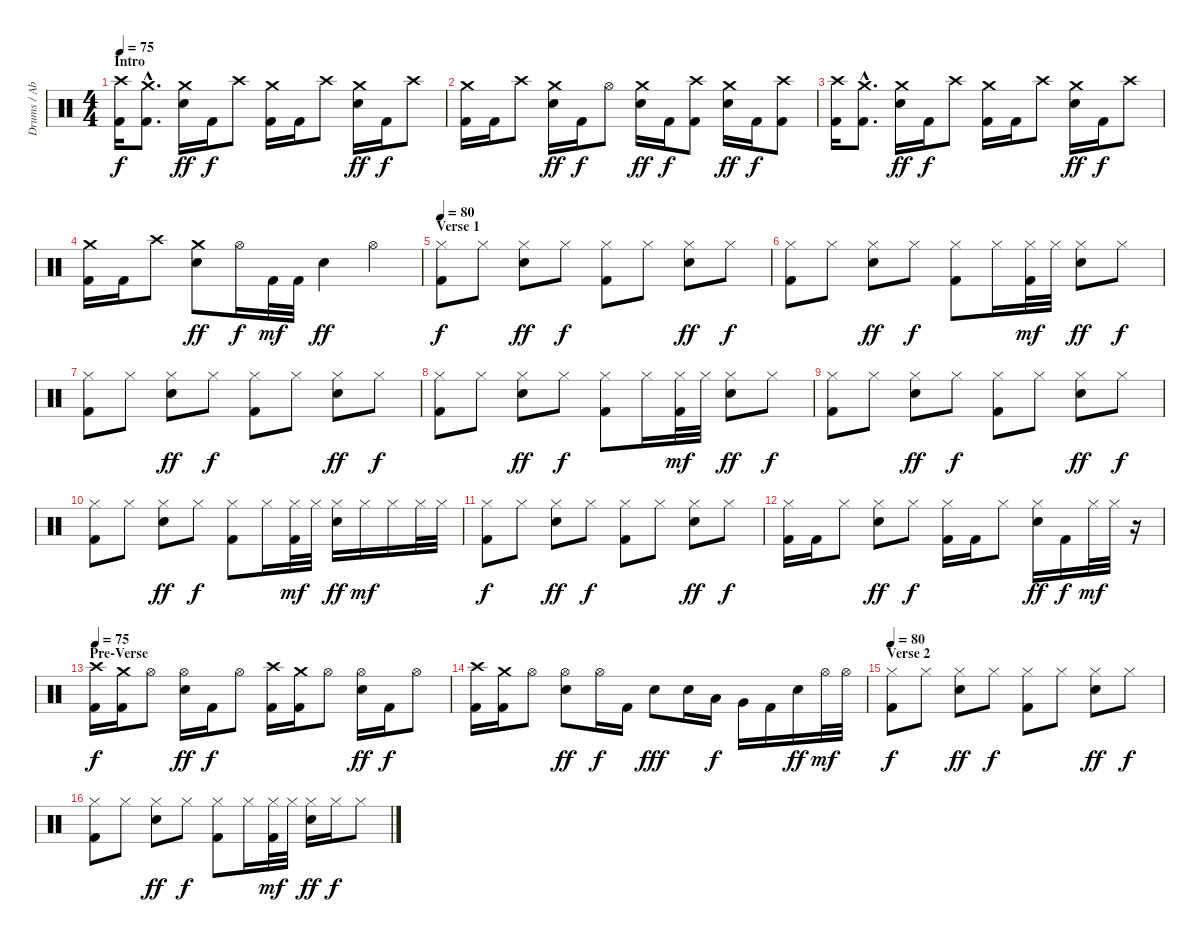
\track ("Drums / Abe Cunningham" "Drums / Ab") {instrument percussion}
\staff {score}
\articulation defaults
\ts (4 4)
\section ("" "Intro")
\tempo 75
\clef neutral
\ks c
("Crash high (hit)" "Kick (hit) 2").16{dy f} ("Crash medium (hit)"{hac} "Kick (hit) 2"{hac}).8{d} ("Crash medium (hit)" "Electric Snare (hit)").16{dy ff} "Kick (hit) 2".16{dy f} "Crash high (hit)".8 ("Crash medium (hit)" "Kick (hit) 2").16 "Kick (hit) 2".16 "Crash high (hit)".8 ("Crash medium (hit)" "Electric Snare (hit)").16{dy ff} "Kick (hit) 2".16{dy f} "Crash high (hit)".8 |
("Crash medium (hit)" "Kick (hit) 2").16 "Kick (hit) 2".16 "Crash high (hit)".8 ("Crash medium (hit)" "Electric Snare (hit)").16{dy ff} "Kick (hit) 2".16{dy f} "Hi-Hat (open)".8 ("Crash medium (hit)" "Electric Snare (hit)").16{dy ff} "Kick (hit) 2".16{dy f} ("Crash high (hit)" "Kick (hit) 2").8 ("Crash medium (hit)" "Electric Snare (hit)").16{dy ff} "Kick (hit) 2".16{dy f} ("Crash high (hit)" "Kick (hit) 2").8 |
("Crash high (hit)" "Kick (hit) 2").16 ("Crash medium (hit)"{hac} "Kick (hit) 2"{hac}).8{d} ("Crash medium (hit)" "Electric Snare (hit)").16{dy ff} "Kick (hit) 2".16{dy f} "Crash high (hit)".8 ("Crash medium (hit)" "Kick (hit) 2").16 "Kick (hit) 2".16 "Crash high (hit)".8 ("Crash medium (hit)" "Electric Snare (hit)").16{dy ff} "Kick (hit) 2".16{dy f} "Crash high (hit)".8 |
("Crash medium (hit)" "Kick (hit) 2").16 "Kick (hit) 2".16 "Crash high (hit)".8 ("Crash medium (hit)" "Electric Snare (hit)").8{dy ff} "Hi-Hat (open)".16{dy f} "Kick (hit) 2".32{dy mf} "Kick (hit) 2".32 "Electric Snare (hit)".4{dy ff} "Hi-Hat (open)".4 |
\section ("" "Verse 1")
\tempo 80
("Hi-Hat (closed)" "Kick (hit) 2").8{dy f} "Hi-Hat (closed)".8 ("Hi-Hat (closed)" "Electric Snare (hit)").8{dy ff} "Hi-Hat (closed)".8{dy f} ("Hi-Hat (closed)" "Kick (hit) 2").8 "Hi-Hat (closed)".8 ("Hi-Hat (closed)" "Electric Snare (hit)").8{dy ff} "Hi-Hat (closed)".8{dy f} |
("Hi-Hat (closed)" "Kick (hit) 2").8 "Hi-Hat (closed)".8 ("Hi-Hat (closed)" "Electric Snare (hit)").8{dy ff} "Hi-Hat (closed)".8{dy f} ("Hi-Hat (closed)" "Kick (hit) 2").8 "Hi-Hat (closed)".16 ("Hi-Hat (closed)" "Kick (hit) 2").32{dy mf} "Hi-Hat (closed)".32 ("Hi-Hat (closed)" "Electric Snare (hit)").8{dy ff} "Hi-Hat (closed)".8{dy f} |
("Hi-Hat (closed)" "Kick (hit) 2").8 "Hi-Hat (closed)".8 ("Hi-Hat (closed)" "Electric Snare (hit)").8{dy ff} "Hi-Hat (closed)".8{dy f} ("Hi-Hat (closed)" "Kick (hit) 2").8 "Hi-Hat (closed)".8 ("Hi-Hat (closed)" "Electric Snare (hit)").8{dy ff} "Hi-Hat (closed)".8{dy f} |
("Hi-Hat (closed)" "Kick (hit) 2").8 "Hi-Hat (closed)".8 ("Hi-Hat (closed)" "Electric Snare (hit)").8{dy ff} "Hi-Hat (closed)".8{dy f} ("Hi-Hat (closed)" "Kick (hit) 2").8 "Hi-Hat (closed)".16 ("Hi-Hat (closed)" "Kick (hit) 2").32{dy mf} "Hi-Hat (closed)".32 ("Hi-Hat (closed)" "Electric Snare (hit)").8{dy ff} "Hi-Hat (closed)".8{dy f} |
("Hi-Hat (closed)" "Kick (hit) 2").8 "Hi-Hat (closed)".8 ("Hi-Hat (closed)" "Electric Snare (hit)").8{dy ff} "Hi-Hat (closed)".8{dy f} ("Hi-Hat (closed)" "Kick (hit) 2").8 "Hi-Hat (closed)".8 ("Hi-Hat (closed)" "Electric Snare (hit)").8{dy ff} "Hi-Hat (closed)".8{dy f} |
("Hi-Hat (closed)" "Kick (hit) 2").8 "Hi-Hat (closed)".8 ("Hi-Hat (closed)" "Electric Snare (hit)").8{dy ff} "Hi-Hat (closed)".8{dy f} ("Hi-Hat (closed)" "Kick (hit) 2").8 "Hi-Hat (closed)".16 ("Hi-Hat (closed)" "Kick (hit) 2").32{dy mf} "Hi-Hat (closed)".32 ("Hi-Hat (closed)" "Electric Snare (hit)").16{dy ff} "Hi-Hat (closed)".16{dy mf} "Hi-Hat (closed)".16 "Hi-Hat (closed)".32 "Hi-Hat (closed)".32 |
("Hi-Hat (closed)" "Kick (hit) 2").8{dy f} "Hi-Hat (closed)".8 ("Hi-Hat (closed)" "Electric Snare (hit)").8{dy ff} "Hi-Hat (closed)".8{dy f} ("Hi-Hat (closed)" "Kick (hit) 2").8 "Hi-Hat (closed)".8 ("Hi-Hat (closed)" "Electric Snare (hit)").8{dy ff} "Hi-Hat (closed)".8{dy f} |
("Hi-Hat (closed)" "Kick (hit) 2").16 "Kick (hit) 2".16 "Hi-Hat (closed)".8 ("Hi-Hat (closed)" "Electric Snare (hit)").8{dy ff} "Hi-Hat (closed)".8{dy f} ("Hi-Hat (closed)" "Kick (hit) 2").16 "Kick (hit) 2".16 "Hi-Hat (closed)".8 ("Hi-Hat (closed)" "Electric Snare (hit)").16{dy ff} "Kick (hit) 2".16{dy f} "Hi-Hat (closed)".32{dy mf} "Hi-Hat (closed)".32 r.16 |
\section ("" "Pre-Verse")
\tempo 75
("Crash high (hit)" "Kick (hit) 2").16{dy f} ("Crash medium (hit)" "Kick (hit) 2").16 "Hi-Hat (open)".8 ("Hi-Hat (open)" "Electric Snare (hit)").16{dy ff} "Kick (hit) 2".16{dy f} "Hi-Hat (open)".8 ("Crash high (hit)" "Kick (hit) 2").16 ("Crash medium (hit)" "Kick (hit) 2").16 "Hi-Hat (open)".8 ("Hi-Hat (open)" "Electric Snare (hit)").16{dy ff} "Kick (hit) 2".16{dy f} "Hi-Hat (open)".8 |
("Crash high (hit)" "Kick (hit) 2").16 ("Crash medium (hit)" "Kick (hit) 2").16 "Hi-Hat (open)".8 ("Hi-Hat (open)" "Electric Snare (hit)").8{dy ff} "Hi-Hat (open)".16{dy f} "Kick (hit) 2".16 "Electric Snare (hit)".8{dy fff} "Electric Snare (hit)".16 "Low Tom (hit)".16{dy f} "Very Low Tom (hit)".16 "Kick (hit) 2".16 "Electric Snare (hit)".16{dy ff} "Hi-Hat (open)".32{dy mf} "Hi-Hat (open)".32 |
\section ("" "Verse 2")
\tempo 80
("Hi-Hat (closed)" "Kick (hit) 2").8{dy f} "Hi-Hat (closed)".8 ("Hi-Hat (closed)" "Electric Snare (hit)").8{dy ff} "Hi-Hat (closed)".8{dy f} ("Hi-Hat (closed)" "Kick (hit) 2").8 "Hi-Hat (closed)".8 ("Hi-Hat (closed)" "Electric Snare (hit)").8{dy ff} "Hi-Hat (closed)".8{dy f} |
("Hi-Hat (closed)" "Kick (hit) 2").8 "Hi-Hat (closed)".8 ("Hi-Hat (closed)" "Electric Snare (hit)").8{dy ff} "Hi-Hat (closed)".8{dy f} ("Hi-Hat (closed)" "Kick (hit) 2").8 "Hi-Hat (closed)".16 ("Hi-Hat (closed)" "Kick (hit) 2").32{dy mf} "Hi-Hat (closed)".32 ("Hi-Hat (closed)" "Electric Snare (hit)").16{dy ff} "Hi-Hat (closed)".16{dy f} "Hi-Hat (closed)".8
